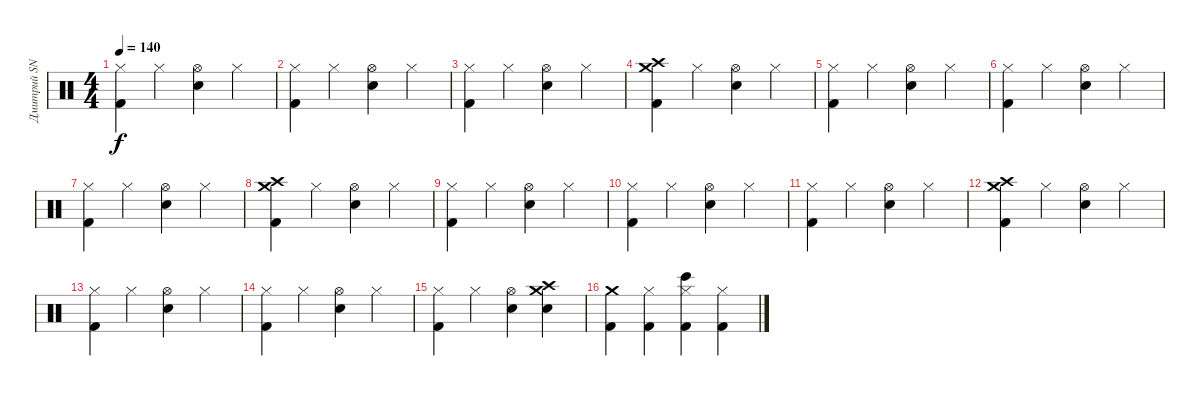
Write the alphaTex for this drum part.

\track ("Дмитрий SNAKE Хакимов" "Дмитрий SN") {instrument percussion}
\staff {score}
\articulation defaults
\ts (4 4)
\tempo 140
\clef neutral
\ks c
("Hi-Hat (closed)" "Kick (hit) 2").4{dy f} "Hi-Hat (closed)".4 ("Hi-Hat (open)" "Snare (hit) 2").4 "Hi-Hat (closed)".4 |
("Hi-Hat (closed)" "Kick (hit) 2").4 "Hi-Hat (closed)".4 ("Hi-Hat (open)" "Snare (hit) 2").4 "Hi-Hat (closed)".4 |
("Hi-Hat (closed)" "Kick (hit) 2").4 "Hi-Hat (closed)".4 ("Hi-Hat (open)" "Snare (hit) 2").4 "Hi-Hat (closed)".4 |
("Crash high (hit)" "Crash medium (hit)" "Kick (hit) 2").4 "Hi-Hat (closed)".4 ("Hi-Hat (open)" "Snare (hit) 2").4 "Hi-Hat (closed)".4 |
("Hi-Hat (closed)" "Kick (hit) 2").4 "Hi-Hat (closed)".4 ("Hi-Hat (open)" "Snare (hit) 2").4 "Hi-Hat (closed)".4 |
("Hi-Hat (closed)" "Kick (hit) 2").4 "Hi-Hat (closed)".4 ("Hi-Hat (open)" "Snare (hit) 2").4 "Hi-Hat (closed)".4 |
("Hi-Hat (closed)" "Kick (hit) 2").4 "Hi-Hat (closed)".4 ("Hi-Hat (open)" "Snare (hit) 2").4 "Hi-Hat (closed)".4 |
("Crash high (hit)" "Crash medium (hit)" "Kick (hit) 2").4 "Hi-Hat (closed)".4 ("Hi-Hat (open)" "Snare (hit) 2").4 "Hi-Hat (closed)".4 |
("Hi-Hat (closed)" "Kick (hit) 2").4 "Hi-Hat (closed)".4 ("Hi-Hat (open)" "Snare (hit) 2").4 "Hi-Hat (closed)".4 |
("Hi-Hat (closed)" "Kick (hit) 2").4 "Hi-Hat (closed)".4 ("Hi-Hat (open)" "Snare (hit) 2").4 "Hi-Hat (closed)".4 |
("Hi-Hat (closed)" "Kick (hit) 2").4 "Hi-Hat (closed)".4 ("Hi-Hat (open)" "Snare (hit) 2").4 "Hi-Hat (closed)".4 |
("Crash high (hit)" "Crash medium (hit)" "Kick (hit) 2").4 "Hi-Hat (closed)".4 ("Hi-Hat (open)" "Snare (hit) 2").4 "Hi-Hat (closed)".4 |
("Hi-Hat (closed)" "Kick (hit) 2").4 "Hi-Hat (closed)".4 ("Hi-Hat (open)" "Snare (hit) 2").4 "Hi-Hat (closed)".4 |
("Hi-Hat (closed)" "Kick (hit) 2").4 "Hi-Hat (closed)".4 ("Hi-Hat (open)" "Snare (hit) 2").4 "Hi-Hat (closed)".4 |
("Hi-Hat (closed)" "Kick (hit) 2").4 "Hi-Hat (closed)".4 ("Hi-Hat (open)" "Snare (hit) 2").4 ("Crash high (hit)" "Crash medium (hit)" "Snare (hit) 2").4 |
("Crash medium (hit)" "Kick (hit) 2").4 ("Hi-Hat (closed)" "Kick (hit) 2").4 ("Hi-Hat (closed)" "Bongo High (hit)" "Kick (hit) 2").4 ("Hi-Hat (closed)" "Kick (hit) 2").4
